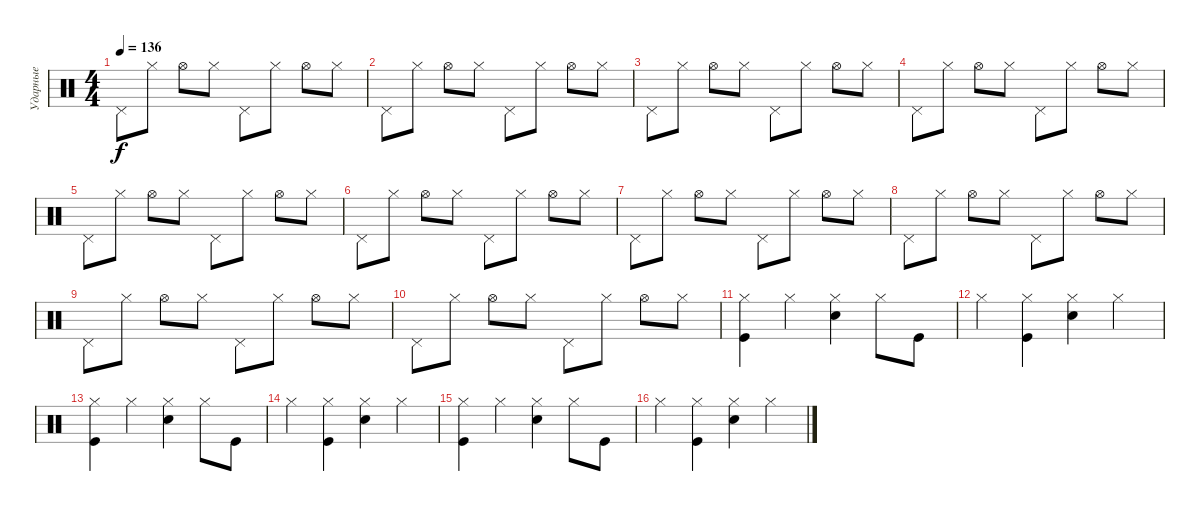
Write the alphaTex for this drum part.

\track ("Ударные" "Ударные") {instrument percussion}
\staff {score}
\articulation defaults
\ts (4 4)
\tempo 136
\clef neutral
\ks c "Pedal Hi-Hat (hit)".8{dy f} "Hi-Hat (closed)".8 "Hi-Hat (open)".8 "Hi-Hat (closed)".8 "Pedal Hi-Hat (hit)".8 "Hi-Hat (closed)".8 "Hi-Hat (open)".8 "Hi-Hat (closed)".8
|
"Pedal Hi-Hat (hit)".8 "Hi-Hat (closed)".8 "Hi-Hat (open)".8 "Hi-Hat (closed)".8 "Pedal Hi-Hat (hit)".8 "Hi-Hat (closed)".8 "Hi-Hat (open)".8 "Hi-Hat (closed)".8 |
"Pedal Hi-Hat (hit)".8 "Hi-Hat (closed)".8 "Hi-Hat (open)".8 "Hi-Hat (closed)".8 "Pedal Hi-Hat (hit)".8 "Hi-Hat (closed)".8 "Hi-Hat (open)".8 "Hi-Hat (closed)".8 |
"Pedal Hi-Hat (hit)".8 "Hi-Hat (closed)".8 "Hi-Hat (open)".8 "Hi-Hat (closed)".8 "Pedal Hi-Hat (hit)".8 "Hi-Hat (closed)".8 "Hi-Hat (open)".8 "Hi-Hat (closed)".8 |
"Pedal Hi-Hat (hit)".8 "Hi-Hat (closed)".8 "Hi-Hat (open)".8 "Hi-Hat (closed)".8 "Pedal Hi-Hat (hit)".8 "Hi-Hat (closed)".8 "Hi-Hat (open)".8 "Hi-Hat (closed)".8 |
"Pedal Hi-Hat (hit)".8 "Hi-Hat (closed)".8 "Hi-Hat (open)".8 "Hi-Hat (closed)".8 "Pedal Hi-Hat (hit)".8 "Hi-Hat (closed)".8 "Hi-Hat (open)".8 "Hi-Hat (closed)".8 |
"Pedal Hi-Hat (hit)".8 "Hi-Hat (closed)".8 "Hi-Hat (open)".8 "Hi-Hat (closed)".8 "Pedal Hi-Hat (hit)".8 "Hi-Hat (closed)".8 "Hi-Hat (open)".8 "Hi-Hat (closed)".8 |
"Pedal Hi-Hat (hit)".8 "Hi-Hat (closed)".8 "Hi-Hat (open)".8 "Hi-Hat (closed)".8 "Pedal Hi-Hat (hit)".8 "Hi-Hat (closed)".8 "Hi-Hat (open)".8 "Hi-Hat (closed)".8 |
"Pedal Hi-Hat (hit)".8 "Hi-Hat (closed)".8 "Hi-Hat (open)".8 "Hi-Hat (closed)".8 "Pedal Hi-Hat (hit)".8 "Hi-Hat (closed)".8 "Hi-Hat (open)".8 "Hi-Hat (closed)".8 |
"Pedal Hi-Hat (hit)".8 "Hi-Hat (closed)".8 "Hi-Hat (open)".8 "Hi-Hat (closed)".8 "Pedal Hi-Hat (hit)".8 "Hi-Hat (closed)".8 "Hi-Hat (open)".8 "Hi-Hat (closed)".8 |
("Hi-Hat (closed)" "Kick (hit)").4 "Hi-Hat (closed)".4 ("Hi-Hat (closed)" "Snare (hit) 2").4 "Hi-Hat (closed)".8 "Kick (hit)".8 |
"Hi-Hat (closed)".4 ("Kick (hit)" "Hi-Hat (closed)").4 ("Hi-Hat (closed)" "Snare (hit) 2").4 "Hi-Hat (closed)".4 |
("Hi-Hat (closed)" "Kick (hit)").4 "Hi-Hat (closed)".4 ("Hi-Hat (closed)" "Snare (hit) 2").4 "Hi-Hat (closed)".8 "Kick (hit)".8 |
"Hi-Hat (closed)".4 ("Kick (hit)" "Hi-Hat (closed)").4 ("Hi-Hat (closed)" "Snare (hit) 2").4 "Hi-Hat (closed)".4 |
("Hi-Hat (closed)" "Kick (hit)").4 "Hi-Hat (closed)".4 ("Hi-Hat (closed)" "Snare (hit) 2").4 "Hi-Hat (closed)".8 "Kick (hit)".8 |
"Hi-Hat (closed)".4 ("Kick (hit)" "Hi-Hat (closed)").4 ("Hi-Hat (closed)" "Snare (hit) 2").4 "Hi-Hat (closed)".4
